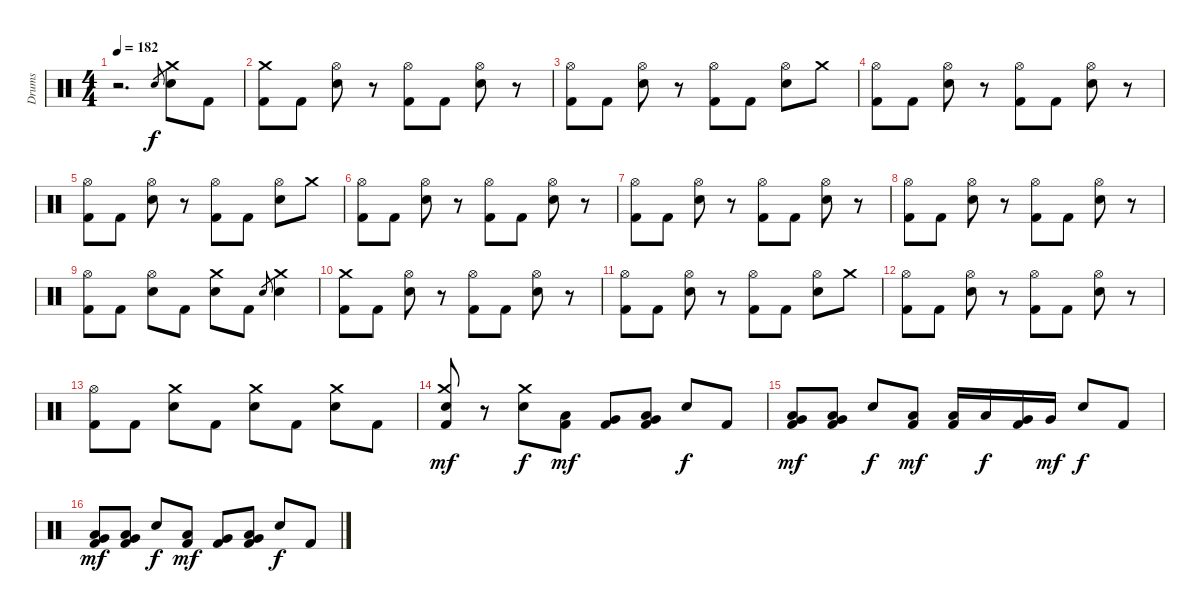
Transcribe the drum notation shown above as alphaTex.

\track ("Drums" "Drums") {instrument percussion}
\staff {score}
\articulation defaults
\ts (4 4)
\tempo 182
\clef neutral
\ks c
r.2{d dy f} "Snare (hit) 2".8{gr} ("Crash medium (hit)" "Snare (hit) 2").8 "Kick (hit) 2".8 |
("Crash medium (hit)" "Kick (hit) 2").8 "Kick (hit) 2".8 ("Hi-Hat (open)" "Snare (hit) 2").8 r.8 ("Hi-Hat (open)" "Kick (hit) 2").8 "Kick (hit) 2".8 ("Hi-Hat (open)" "Snare (hit) 2").8 r.8 |
("Hi-Hat (open)" "Kick (hit) 2").8 "Kick (hit) 2".8 ("Hi-Hat (open)" "Snare (hit) 2").8 r.8 ("Hi-Hat (open)" "Kick (hit) 2").8 "Kick (hit) 2".8 ("Hi-Hat (open)" "Snare (hit) 2").8 "Crash medium (hit)".8 |
("Hi-Hat (open)" "Kick (hit) 2").8 "Kick (hit) 2".8 ("Hi-Hat (open)" "Snare (hit) 2").8 r.8 ("Hi-Hat (open)" "Kick (hit) 2").8 "Kick (hit) 2".8 ("Hi-Hat (open)" "Snare (hit) 2").8 r.8 |
("Hi-Hat (open)" "Kick (hit) 2").8 "Kick (hit) 2".8 ("Hi-Hat (open)" "Snare (hit) 2").8 r.8 ("Hi-Hat (open)" "Kick (hit) 2").8 "Kick (hit) 2".8 ("Hi-Hat (open)" "Snare (hit) 2").8 "Crash medium (hit)".8 |
("Hi-Hat (open)" "Kick (hit) 2").8 "Kick (hit) 2".8 ("Hi-Hat (open)" "Snare (hit) 2").8 r.8 ("Hi-Hat (open)" "Kick (hit) 2").8 "Kick (hit) 2".8 ("Hi-Hat (open)" "Snare (hit) 2").8 r.8 |
("Hi-Hat (open)" "Kick (hit) 2").8 "Kick (hit) 2".8 ("Hi-Hat (open)" "Snare (hit) 2").8 r.8 ("Hi-Hat (open)" "Kick (hit) 2").8 "Kick (hit) 2".8 ("Hi-Hat (open)" "Snare (hit) 2").8 r.8 |
("Hi-Hat (open)" "Kick (hit) 2").8 "Kick (hit) 2".8 ("Hi-Hat (open)" "Snare (hit) 2").8 r.8 ("Hi-Hat (open)" "Kick (hit) 2").8 "Kick (hit) 2".8 ("Hi-Hat (open)" "Snare (hit) 2").8 r.8 |
("Hi-Hat (open)" "Kick (hit) 2").8 "Kick (hit) 2".8 ("Hi-Hat (open)" "Snare (hit) 2").8 "Kick (hit) 2".8 ("Crash medium (hit)" "Snare (hit) 2").8 "Kick (hit) 2".8 "Snare (hit) 2".8{gr} ("Crash medium (hit)" "Snare (hit) 2").4 |
("Crash medium (hit)" "Kick (hit) 2").8 "Kick (hit) 2".8 ("Hi-Hat (open)" "Snare (hit) 2").8 r.8 ("Hi-Hat (open)" "Kick (hit) 2").8 "Kick (hit) 2".8 ("Hi-Hat (open)" "Snare (hit) 2").8 r.8 |
("Hi-Hat (open)" "Kick (hit) 2").8 "Kick (hit) 2".8 ("Hi-Hat (open)" "Snare (hit) 2").8 r.8 ("Hi-Hat (open)" "Kick (hit) 2").8 "Kick (hit) 2".8 ("Hi-Hat (open)" "Snare (hit) 2").8 "Crash medium (hit)".8 |
("Hi-Hat (open)" "Kick (hit) 2").8 "Kick (hit) 2".8 ("Hi-Hat (open)" "Snare (hit) 2").8 r.8 ("Hi-Hat (open)" "Kick (hit) 2").8 "Kick (hit) 2".8 ("Hi-Hat (open)" "Snare (hit) 2").8 r.8 |
("Hi-Hat (open)" "Kick (hit) 2").8 "Kick (hit) 2".8 ("Crash medium (hit)" "Snare (hit) 2").8 "Kick (hit) 2".8 ("Crash medium (hit)" "Snare (hit) 2").8 "Kick (hit) 2".8 ("Crash medium (hit)" "Snare (hit) 2").8 "Kick (hit) 2".8 |
("Crash medium (hit)" "Snare (hit) 2" "Kick (hit) 2").8{dy mf} r.8 ("Crash medium (hit)" "Snare (hit) 2").8{dy f} ("Low Tom (hit)" "Kick (hit) 2").8{dy mf} ("Very Low Tom (hit)" "Kick (hit) 2").8 ("Low Tom (hit)" "Very Low Tom (hit)" "Kick (hit) 2").8 "Snare (hit) 2".8{dy f} "Kick (hit) 2".8 |
("Low Tom (hit)" "Very Low Tom (hit)" "Kick (hit) 2").8{dy mf} ("Low Tom (hit)" "Very Low Tom (hit)" "Kick (hit) 2").8 "Snare (hit) 2".8{dy f} ("Low Tom (hit)" "Kick (hit) 2").8{dy mf} ("Low Tom (hit)" "Kick (hit) 2").16 "Low Tom (hit)".16{dy f} ("Very Low Tom (hit)" "Kick (hit) 2").16 "Very Low Tom (hit)".16{dy mf} "Snare (hit) 2".8{dy f} "Kick (hit) 2".8 |
("Low Tom (hit)" "Very Low Tom (hit)" "Kick (hit) 2").8{dy mf} ("Low Tom (hit)" "Very Low Tom (hit)" "Kick (hit) 2").8 "Snare (hit) 2".8{dy f} ("Low Tom (hit)" "Kick (hit) 2").8{dy mf} ("Very Low Tom (hit)" "Kick (hit) 2").8 ("Low Tom (hit)" "Very Low Tom (hit)" "Kick (hit) 2").8 "Snare (hit) 2".8{dy f} "Kick (hit) 2".8
